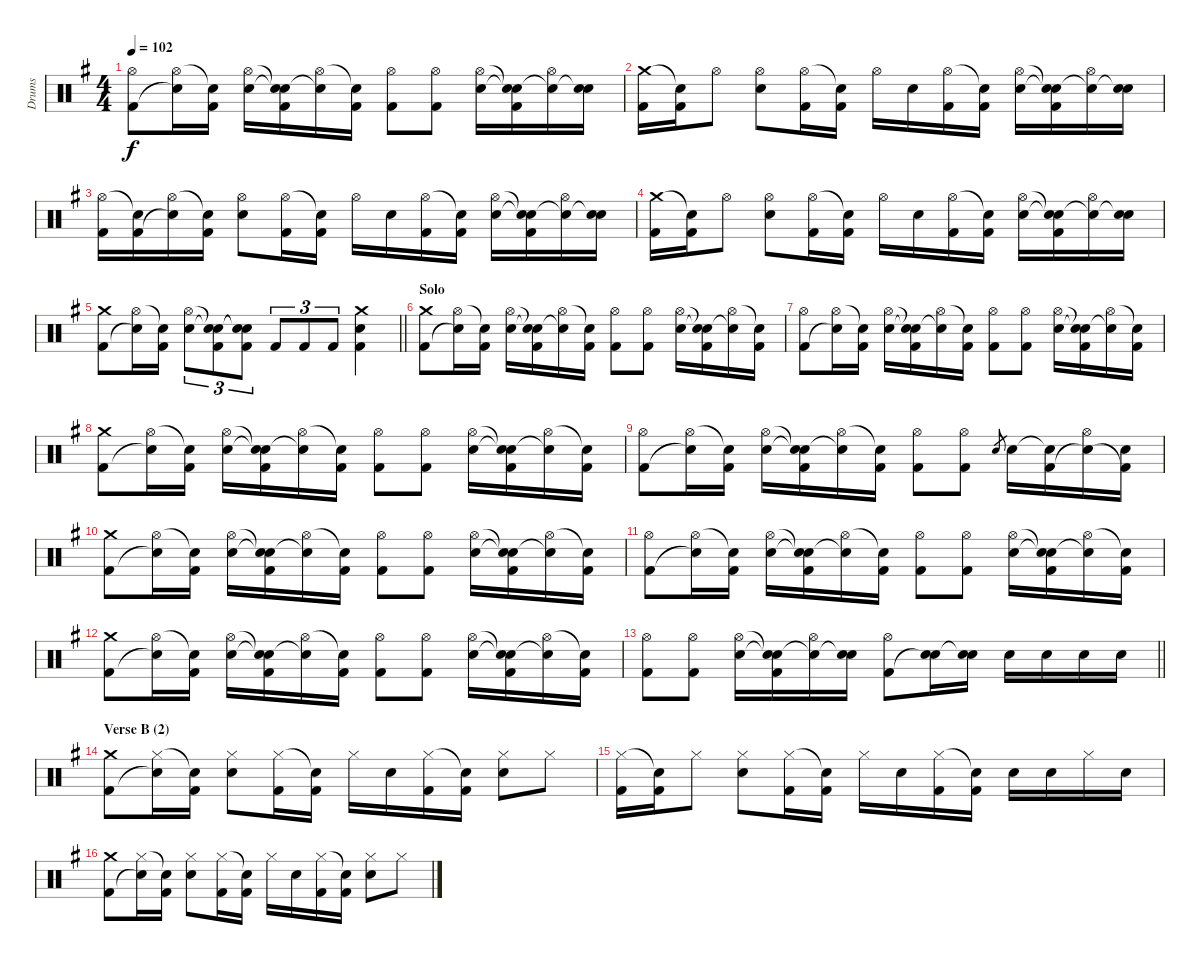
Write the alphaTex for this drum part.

\track ("Drums" "Drums") {instrument percussion}
\staff {score}
\articulation defaults
\ts (4 4)
\tempo 102
\clef neutral
\ks eminor
("Hi-Hat (open)" "Kick (hit) 2").8{dy f} ("Hi-Hat (open)" "Snare (hit)"{t}).16 ("Snare (hit)"{t} "Kick (hit) 2").16 ("Hi-Hat (open)" "Electric Snare (hit)").16 ("Snare (hit)"{t} "Snare (hit)"{t} "Kick (hit) 2").16 ("Hi-Hat (open)" "Snare (hit)"{t}).16 ("Snare (hit)"{t} "Kick (hit) 2").16 ("Hi-Hat (open)" "Kick (hit) 2").8 ("Hi-Hat (open)" "Kick (hit) 2").8 ("Hi-Hat (open)" "Electric Snare (hit)").16 ("Snare (hit)"{t} "Snare (hit)"{t} "Kick (hit) 2").16 ("Hi-Hat (open)" "Snare (hit)"{t}).16 ("Electric Snare (hit)" "Snare (hit)"{t}).16 |
("Crash medium (hit)" "Kick (hit) 2").16 ("Snare (hit)"{t} "Kick (hit) 2").16 "Hi-Hat (open)".8 ("Hi-Hat (open)" "Electric Snare (hit)").8 ("Hi-Hat (open)" "Kick (hit) 2").16 ("Snare (hit)"{t} "Kick (hit) 2").16 "Hi-Hat (open)".16 "Electric Snare (hit)".16 ("Hi-Hat (open)" "Kick (hit) 2").16 ("Snare (hit)"{t} "Kick (hit) 2").16 ("Hi-Hat (open)" "Electric Snare (hit)").16 ("Snare (hit)"{t} "Snare (hit)"{t} "Kick (hit) 2").16 ("Hi-Hat (open)" "Snare (hit)"{t}).16 ("Electric Snare (hit)" "Snare (hit)"{t}).16 |
("Hi-Hat (open)" "Kick (hit) 2").16 ("Snare (hit)"{t} "Kick (hit) 2").16 ("Hi-Hat (open)" "Snare (hit)"{t}).16 ("Snare (hit)"{t} "Kick (hit) 2").16 ("Hi-Hat (open)" "Electric Snare (hit)").8 ("Hi-Hat (open)" "Kick (hit) 2").16 ("Snare (hit)"{t} "Kick (hit) 2").16 "Hi-Hat (open)".16 "Electric Snare (hit)".16 ("Hi-Hat (open)" "Kick (hit) 2").16 ("Snare (hit)"{t} "Kick (hit) 2").16 ("Hi-Hat (open)" "Electric Snare (hit)").16 ("Snare (hit)"{t} "Snare (hit)"{t} "Kick (hit) 2").16 ("Hi-Hat (open)" "Snare (hit)"{t}).16 ("Electric Snare (hit)" "Snare (hit)"{t}).16 |
("Crash medium (hit)" "Kick (hit) 2").16 ("Snare (hit)"{t} "Kick (hit) 2").16 "Hi-Hat (open)".8 ("Hi-Hat (open)" "Electric Snare (hit)").8 ("Hi-Hat (open)" "Kick (hit) 2").16 ("Snare (hit)"{t} "Kick (hit) 2").16 "Hi-Hat (open)".16 "Electric Snare (hit)".16 ("Hi-Hat (open)" "Kick (hit) 2").16 ("Snare (hit)"{t} "Kick (hit) 2").16 ("Hi-Hat (open)" "Electric Snare (hit)").16 ("Snare (hit)"{t} "Snare (hit)"{t} "Kick (hit) 2").16 ("Hi-Hat (open)" "Snare (hit)"{t}).16 ("Electric Snare (hit)" "Snare (hit)"{t}).16 |
\barLineRight lightlight
("Crash medium (hit)" "Kick (hit) 2").8 ("Hi-Hat (open)" "Snare (hit)"{t}).16 ("Snare (hit)"{t} "Kick (hit) 2").16 ("Hi-Hat (open)" "Electric Snare (hit)").8{tu (3 2)} ("Snare (hit)"{t} "Snare (hit)"{t} "Kick (hit) 2").8{tu (3 2)} ("Snare (hit)"{t} "Snare (hit)"{t} "Kick (hit) 2").8{tu (3 2)} "Kick (hit) 2".8{tu (3 2)} "Kick (hit) 2".8{tu (3 2)} "Kick (hit) 2".8{tu (3 2)} ("Crash medium (hit)" "Electric Snare (hit)" "Kick (hit) 2").4 |
\section ("" "Solo")
("Crash medium (hit)" "Kick (hit) 2").8 ("Hi-Hat (open)" "Snare (hit)"{t}).16 ("Snare (hit)"{t} "Kick (hit) 2").16 ("Hi-Hat (open)" "Electric Snare (hit)").16 ("Snare (hit)"{t} "Snare (hit)"{t} "Kick (hit) 2").16 ("Hi-Hat (open)" "Snare (hit)"{t}).16 ("Snare (hit)"{t} "Kick (hit) 2").16 ("Hi-Hat (open)" "Kick (hit) 2").8 ("Hi-Hat (open)" "Kick (hit) 2").8 ("Hi-Hat (open)" "Electric Snare (hit)").16 ("Snare (hit)"{t} "Snare (hit)"{t} "Kick (hit) 2").16 ("Hi-Hat (open)" "Snare (hit)"{t}).16 ("Snare (hit)"{t} "Kick (hit) 2").16 |
("Hi-Hat (open)" "Kick (hit) 2").8 ("Hi-Hat (open)" "Snare (hit)"{t}).16 ("Snare (hit)"{t} "Kick (hit) 2").16 ("Hi-Hat (open)" "Electric Snare (hit)").16 ("Snare (hit)"{t} "Snare (hit)"{t} "Kick (hit) 2").16 ("Hi-Hat (open)" "Snare (hit)"{t}).16 ("Snare (hit)"{t} "Kick (hit) 2").16 ("Hi-Hat (open)" "Kick (hit) 2").8 ("Hi-Hat (open)" "Kick (hit) 2").8 ("Hi-Hat (open)" "Electric Snare (hit)").16 ("Snare (hit)"{t} "Snare (hit)"{t} "Kick (hit) 2").16 ("Hi-Hat (open)" "Snare (hit)"{t}).16 ("Snare (hit)"{t} "Kick (hit) 2").16 |
("Crash medium (hit)" "Kick (hit) 2").8 ("Hi-Hat (open)" "Snare (hit)"{t}).16 ("Snare (hit)"{t} "Kick (hit) 2").16 ("Hi-Hat (open)" "Electric Snare (hit)").16 ("Snare (hit)"{t} "Snare (hit)"{t} "Kick (hit) 2").16 ("Hi-Hat (open)" "Snare (hit)"{t}).16 ("Snare (hit)"{t} "Kick (hit) 2").16 ("Hi-Hat (open)" "Kick (hit) 2").8 ("Hi-Hat (open)" "Kick (hit) 2").8 ("Hi-Hat (open)" "Electric Snare (hit)").16 ("Snare (hit)"{t} "Snare (hit)"{t} "Kick (hit) 2").16 ("Hi-Hat (open)" "Snare (hit)"{t}).16 ("Snare (hit)"{t} "Kick (hit) 2").16 |
("Hi-Hat (open)" "Kick (hit) 2").8 ("Hi-Hat (open)" "Snare (hit)"{t}).16 ("Snare (hit)"{t} "Kick (hit) 2").16 ("Hi-Hat (open)" "Electric Snare (hit)").16 ("Snare (hit)"{t} "Snare (hit)"{t} "Kick (hit) 2").16 ("Hi-Hat (open)" "Snare (hit)"{t}).16 ("Snare (hit)"{t} "Kick (hit) 2").16 ("Hi-Hat (open)" "Kick (hit) 2").8 ("Hi-Hat (open)" "Kick (hit) 2").8 "Electric Snare (hit)".8{gr} "Electric Snare (hit)".16 ("Snare (hit)"{t} "Kick (hit) 2").16 ("Hi-Hat (open)" "Snare (hit)"{t}).16 ("Electric Snare (hit)" "Kick (hit) 2"{t}).16 |
("Crash medium (hit)" "Kick (hit) 2").8 ("Hi-Hat (open)" "Snare (hit)"{t}).16 ("Snare (hit)"{t} "Kick (hit) 2").16 ("Hi-Hat (open)" "Electric Snare (hit)").16 ("Snare (hit)"{t} "Snare (hit)"{t} "Kick (hit) 2").16 ("Hi-Hat (open)" "Snare (hit)"{t}).16 ("Snare (hit)"{t} "Kick (hit) 2").16 ("Hi-Hat (open)" "Kick (hit) 2").8 ("Hi-Hat (open)" "Kick (hit) 2").8 ("Hi-Hat (open)" "Electric Snare (hit)").16 ("Snare (hit)"{t} "Snare (hit)"{t} "Kick (hit) 2").16 ("Hi-Hat (open)" "Snare (hit)"{t}).16 ("Snare (hit)"{t} "Kick (hit) 2").16 |
("Hi-Hat (open)" "Kick (hit) 2").8 ("Hi-Hat (open)" "Snare (hit)"{t}).16 ("Snare (hit)"{t} "Kick (hit) 2").16 ("Hi-Hat (open)" "Electric Snare (hit)").16 ("Snare (hit)"{t} "Snare (hit)"{t} "Kick (hit) 2").16 ("Hi-Hat (open)" "Snare (hit)"{t}).16 ("Snare (hit)"{t} "Kick (hit) 2").16 ("Hi-Hat (open)" "Kick (hit) 2").8 ("Hi-Hat (open)" "Kick (hit) 2").8 ("Hi-Hat (open)" "Electric Snare (hit)").16 ("Snare (hit)"{t} "Snare (hit)"{t} "Kick (hit) 2").16 ("Hi-Hat (open)" "Snare (hit)"{t}).16 ("Snare (hit)"{t} "Kick (hit) 2").16 |
("Crash medium (hit)" "Kick (hit) 2").8 ("Hi-Hat (open)" "Snare (hit)"{t}).16 ("Snare (hit)"{t} "Kick (hit) 2").16 ("Hi-Hat (open)" "Electric Snare (hit)").16 ("Snare (hit)"{t} "Snare (hit)"{t} "Kick (hit) 2").16 ("Hi-Hat (open)" "Snare (hit)"{t}).16 ("Snare (hit)"{t} "Kick (hit) 2").16 ("Hi-Hat (open)" "Kick (hit) 2").8 ("Hi-Hat (open)" "Kick (hit) 2").8 ("Hi-Hat (open)" "Electric Snare (hit)").16 ("Snare (hit)"{t} "Snare (hit)"{t} "Kick (hit) 2").16 ("Hi-Hat (open)" "Snare (hit)"{t}).16 ("Snare (hit)"{t} "Kick (hit) 2").16 |
\barLineRight lightlight
("Hi-Hat (open)" "Kick (hit) 2").8 ("Hi-Hat (open)" "Kick (hit) 2").8 ("Hi-Hat (open)" "Electric Snare (hit)").16 ("Snare (hit)"{t} "Snare (hit)"{t} "Kick (hit) 2").16 ("Hi-Hat (open)" "Snare (hit)"{t}).16 ("Electric Snare (hit)" "Snare (hit)"{t}).16 ("Hi-Hat (open)" "Kick (hit) 2").8 ("Electric Snare (hit)" "Snare (hit)"{t}).16 ("Electric Snare (hit)" "Snare (hit)"{t}).16 "Electric Snare (hit)".16 "Electric Snare (hit)".16 "Electric Snare (hit)".16 "Electric Snare (hit)".16 |
\section ("" "Verse B (2)")
("Crash medium (hit)" "Kick (hit) 2").8 ("Hi-Hat (closed)" "Snare (hit)"{t}).16 ("Snare (hit)"{t} "Kick (hit) 2").16 ("Hi-Hat (closed)" "Electric Snare (hit)").8 ("Hi-Hat (closed)" "Kick (hit) 2").16 ("Snare (hit)"{t} "Kick (hit) 2").16 "Hi-Hat (closed)".16 "Electric Snare (hit)".16 ("Hi-Hat (closed)" "Kick (hit) 2").16 ("Snare (hit)"{t} "Kick (hit) 2").16 ("Hi-Hat (closed)" "Electric Snare (hit)").8 "Hi-Hat (closed)".8 |
("Hi-Hat (closed)" "Kick (hit) 2").16 ("Snare (hit)"{t} "Kick (hit) 2").16 "Hi-Hat (closed)".8 ("Hi-Hat (closed)" "Electric Snare (hit)").8 ("Hi-Hat (closed)" "Kick (hit) 2").16 ("Snare (hit)"{t} "Kick (hit) 2").16 "Hi-Hat (closed)".16 "Electric Snare (hit)".16 ("Hi-Hat (closed)" "Kick (hit) 2").16 ("Snare (hit)"{t} "Kick (hit) 2").16 "Electric Snare (hit)".16 "Electric Snare (hit)".16 "Hi-Hat (closed)".16 "Electric Snare (hit)".16 |
("Crash medium (hit)" "Kick (hit) 2").8 ("Hi-Hat (closed)" "Snare (hit)"{t}).16 ("Snare (hit)"{t} "Kick (hit) 2").16 ("Hi-Hat (closed)" "Electric Snare (hit)").8 ("Hi-Hat (closed)" "Kick (hit) 2").16 ("Snare (hit)"{t} "Kick (hit) 2").16 "Hi-Hat (closed)".16 "Electric Snare (hit)".16 ("Hi-Hat (closed)" "Kick (hit) 2").16 ("Snare (hit)"{t} "Kick (hit) 2").16 ("Hi-Hat (closed)" "Electric Snare (hit)").8 "Hi-Hat (closed)".8
